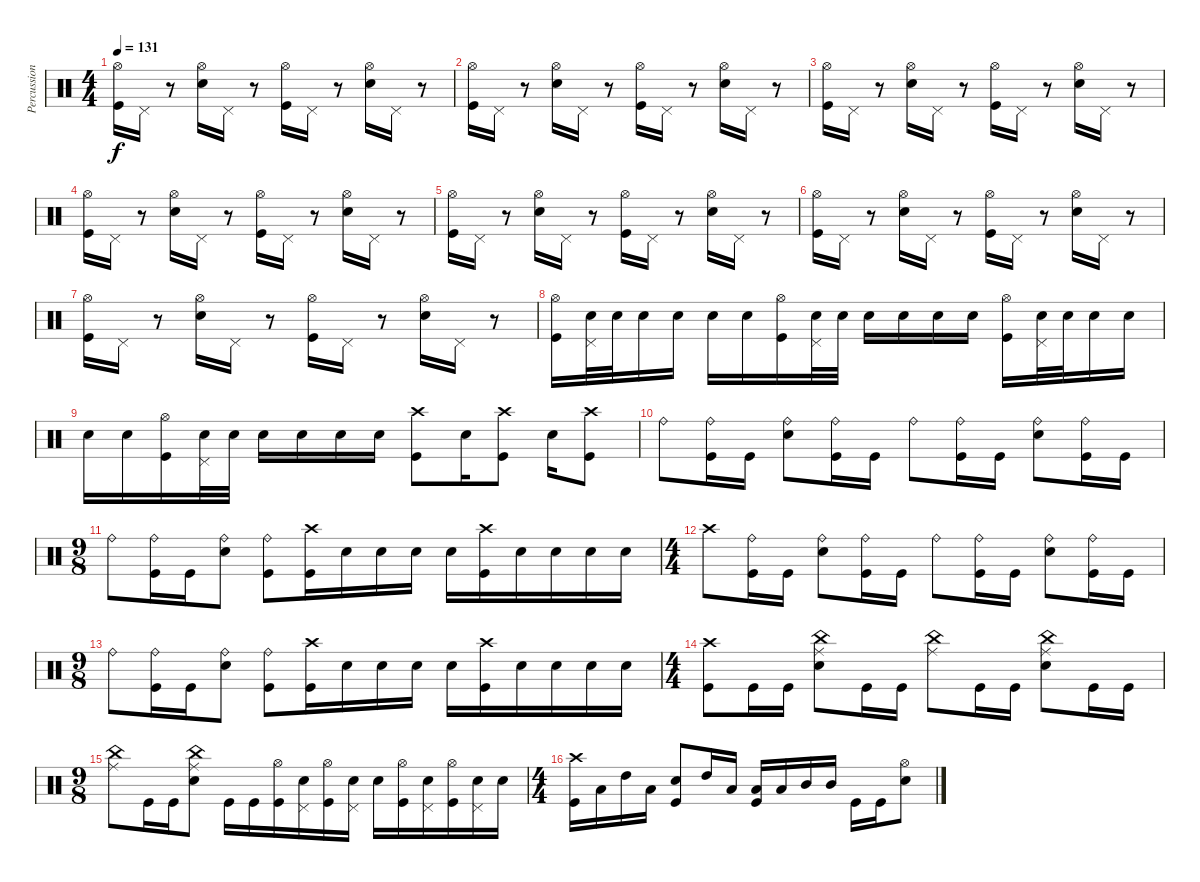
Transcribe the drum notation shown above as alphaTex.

\track ("Percussion" "Percussion") {instrument percussion}
\staff {score}
\articulation defaults
\ts (4 4)
\tempo 131
\clef neutral
\ks c
("Hi-Hat (open)" "Kick (hit)").16{dy f} "Pedal Hi-Hat (hit)".16 r.8 ("Hi-Hat (open)" "Snare (hit) 2").16 "Pedal Hi-Hat (hit)".16 r.8 ("Hi-Hat (open)" "Kick (hit)").16 "Pedal Hi-Hat (hit)".16 r.8 ("Hi-Hat (open)" "Snare (hit) 2").16 "Pedal Hi-Hat (hit)".16 r.8 |
("Hi-Hat (open)" "Kick (hit)").16 "Pedal Hi-Hat (hit)".16 r.8 ("Hi-Hat (open)" "Snare (hit) 2").16 "Pedal Hi-Hat (hit)".16 r.8 ("Hi-Hat (open)" "Kick (hit)").16 "Pedal Hi-Hat (hit)".16 r.8 ("Hi-Hat (open)" "Snare (hit) 2").16 "Pedal Hi-Hat (hit)".16 r.8 |
("Hi-Hat (open)" "Kick (hit)").16 "Pedal Hi-Hat (hit)".16 r.8 ("Hi-Hat (open)" "Snare (hit) 2").16 "Pedal Hi-Hat (hit)".16 r.8 ("Hi-Hat (open)" "Kick (hit)").16 "Pedal Hi-Hat (hit)".16 r.8 ("Hi-Hat (open)" "Snare (hit) 2").16 "Pedal Hi-Hat (hit)".16 r.8 |
("Hi-Hat (open)" "Kick (hit)").16 "Pedal Hi-Hat (hit)".16 r.8 ("Hi-Hat (open)" "Snare (hit) 2").16 "Pedal Hi-Hat (hit)".16 r.8 ("Hi-Hat (open)" "Kick (hit)").16 "Pedal Hi-Hat (hit)".16 r.8 ("Hi-Hat (open)" "Snare (hit) 2").16 "Pedal Hi-Hat (hit)".16 r.8 |
("Hi-Hat (open)" "Kick (hit)").16 "Pedal Hi-Hat (hit)".16 r.8 ("Hi-Hat (open)" "Snare (hit) 2").16 "Pedal Hi-Hat (hit)".16 r.8 ("Hi-Hat (open)" "Kick (hit)").16 "Pedal Hi-Hat (hit)".16 r.8 ("Hi-Hat (open)" "Snare (hit) 2").16 "Pedal Hi-Hat (hit)".16 r.8 |
("Hi-Hat (open)" "Kick (hit)").16 "Pedal Hi-Hat (hit)".16 r.8 ("Hi-Hat (open)" "Snare (hit) 2").16 "Pedal Hi-Hat (hit)".16 r.8 ("Hi-Hat (open)" "Kick (hit)").16 "Pedal Hi-Hat (hit)".16 r.8 ("Hi-Hat (open)" "Snare (hit) 2").16 "Pedal Hi-Hat (hit)".16 r.8 |
("Hi-Hat (open)" "Kick (hit)").16 "Pedal Hi-Hat (hit)".16 r.8 ("Hi-Hat (open)" "Snare (hit) 2").16 "Pedal Hi-Hat (hit)".16 r.8 ("Hi-Hat (open)" "Kick (hit)").16 "Pedal Hi-Hat (hit)".16 r.8 ("Hi-Hat (open)" "Snare (hit) 2").16 "Pedal Hi-Hat (hit)".16 r.8 |
("Kick (hit)" "Hi-Hat (open)").16 ("Snare (hit) 2" "Pedal Hi-Hat (hit)").32 "Snare (hit) 2".32 "Snare (hit) 2".16 "Snare (hit) 2".16 "Snare (hit) 2".16 "Snare (hit) 2".16 ("Hi-Hat (open)" "Kick (hit)").16 ("Snare (hit) 2" "Pedal Hi-Hat (hit)").32 "Snare (hit) 2".32 "Snare (hit) 2".16 "Snare (hit) 2".16 "Snare (hit) 2".16 "Snare (hit) 2".16 ("Kick (hit)" "Hi-Hat (open)").16 ("Snare (hit) 2" "Pedal Hi-Hat (hit)").32 "Snare (hit) 2".32 "Snare (hit) 2".16 "Snare (hit) 2".16 |
"Snare (hit) 2".16 "Snare (hit) 2".16 ("Hi-Hat (open)" "Kick (hit)").16 ("Snare (hit) 2" "Pedal Hi-Hat (hit)").32 "Snare (hit) 2".32 "Snare (hit) 2".16 "Snare (hit) 2".16 "Snare (hit) 2".16 "Snare (hit) 2".16 ("Kick (hit)" "Crash high (hit)").8 "Electric Snare (hit)".16 ("Kick (hit)" "Crash high (hit)").8 "Electric Snare (hit)".16 ("Kick (hit)" "Crash high (hit)").8 |
"Ride (bell)".8 ("Ride (bell)" "Kick (hit)").16 "Kick (hit)".16 ("Ride (bell)" "Snare (hit) 2").8 ("Ride (bell)" "Kick (hit)").16 "Kick (hit)".16 "Ride (bell)".8 ("Ride (bell)" "Kick (hit)").16 "Kick (hit)".16 ("Ride (bell)" "Snare (hit) 2").8 ("Ride (bell)" "Kick (hit)").16 "Kick (hit)".16 |
\ts (9 8)
"Ride (bell)".8 ("Ride (bell)" "Kick (hit)").16 "Kick (hit)".16 ("Ride (bell)" "Snare (hit) 2").8 ("Ride (bell)" "Kick (hit)").8 ("Kick (hit)" "Crash high (hit)").16 "Snare (hit) 2".16 "Snare (hit) 2".16 "Snare (hit) 2".16 "Snare (hit) 2".16 ("Kick (hit)" "Crash high (hit)").16 "Snare (hit) 2".16 "Snare (hit) 2".16 "Snare (hit) 2".16 "Snare (hit) 2".16 |
\ts (4 4)
"Crash high (hit)".8 ("Ride (bell)" "Kick (hit)").16 "Kick (hit)".16 ("Ride (bell)" "Snare (hit) 2").8 ("Ride (bell)" "Kick (hit)").16 "Kick (hit)".16 "Ride (bell)".8 ("Ride (bell)" "Kick (hit)").16 "Kick (hit)".16 ("Ride (bell)" "Snare (hit) 2").8 ("Ride (bell)" "Kick (hit)").16 "Kick (hit)".16 |
\ts (9 8)
"Ride (bell)".8 ("Ride (bell)" "Kick (hit)").16 "Kick (hit)".16 ("Ride (bell)" "Snare (hit) 2").8 ("Ride (bell)" "Kick (hit)").8 ("Kick (hit)" "Crash high (hit)").16 "Snare (hit) 2".16 "Snare (hit) 2".16 "Snare (hit) 2".16 "Snare (hit) 2".16 ("Kick (hit)" "Crash high (hit)").16 "Snare (hit) 2".16 "Snare (hit) 2".16 "Snare (hit) 2".16 "Snare (hit) 2".16 |
\ts (4 4)
("Crash high (hit)" "Kick (hit)").8 "Kick (hit)".16 "Kick (hit)".16 ("Ride (middle)" "China (hit)" "Snare (hit) 2").8 "Kick (hit)".16 "Kick (hit)".16 ("Ride (middle)" "China (hit)").8 "Kick (hit)".16 "Kick (hit)".16 ("Ride (middle)" "China (hit)" "Snare (hit) 2").8 "Kick (hit)".16 "Kick (hit)".16 |
\ts (9 8)
("Ride (middle)" "China (hit)").8 "Kick (hit)".16 "Kick (hit)".16 ("Ride (middle)" "China (hit)" "Snare (hit) 2").8 "Kick (hit)".16 "Kick (hit)".16 ("Kick (hit)" "Hi-Hat (open)").16 ("Electric Snare (hit)" "Pedal Hi-Hat (hit)").16 ("Kick (hit)" "Hi-Hat (open)").16 ("Electric Snare (hit)" "Pedal Hi-Hat (hit)").16 "Electric Snare (hit)".16 ("Kick (hit)" "Hi-Hat (open)").16 ("Electric Snare (hit)" "Pedal Hi-Hat (hit)").16 ("Kick (hit)" "Hi-Hat (open)").16 ("Electric Snare (hit)" "Pedal Hi-Hat (hit)").16 "Electric Snare (hit)".16 |
\ts (4 4)
("Kick (hit)" "Crash high (hit)").16 "Low Tom (hit)".16 "High Tom (hit)".16 "Low Tom (hit)".16 ("Snare (hit) 2" "Kick (hit)").8 "High Tom (hit)".16 "Low Tom (hit)".16 ("Kick (hit)" "Low Tom (hit)").16 "Low Tom (hit)".16 "Mid Tom (hit)".16 "Mid Tom (hit)".16 "Kick (hit)".16 "Kick (hit)".16 ("Snare (hit) 2" "Hi-Hat (open)").8
